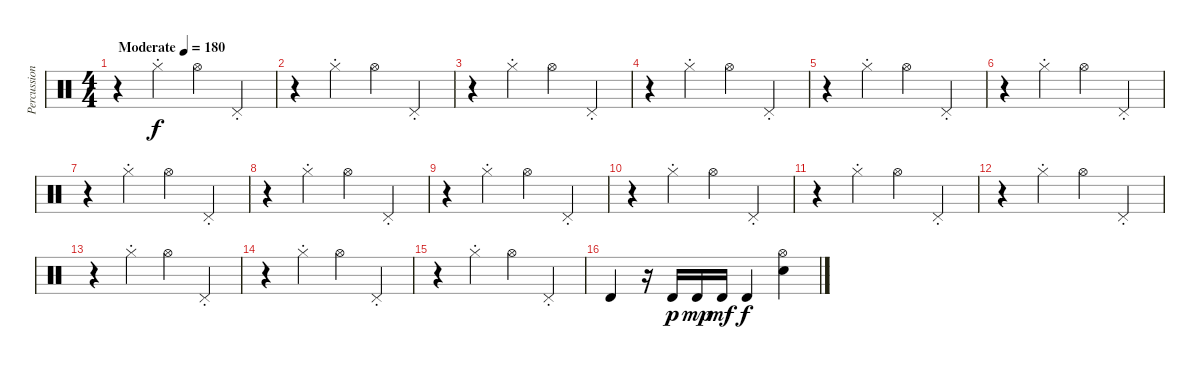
\track ("Percussion" "Percussion") {instrument percussion}
\staff {score}
\articulation defaults
\ts (4 4)
\tempo (180 "Moderate")
\clef neutral
\ks c
r.4{dy f} "Hi-Hat (closed)"{st}.4 "Hi-Hat (open)".4 "Pedal Hi-Hat (hit)"{st}.4 |
r.4 "Hi-Hat (closed)"{st}.4 "Hi-Hat (open)".4 "Pedal Hi-Hat (hit)"{st}.4 |
r.4 "Hi-Hat (closed)"{st}.4 "Hi-Hat (open)".4 "Pedal Hi-Hat (hit)"{st}.4 |
r.4 "Hi-Hat (closed)"{st}.4 "Hi-Hat (open)".4 "Pedal Hi-Hat (hit)"{st}.4 |
r.4 "Hi-Hat (closed)"{st}.4 "Hi-Hat (open)".4 "Pedal Hi-Hat (hit)"{st}.4 |
r.4 "Hi-Hat (closed)"{st}.4 "Hi-Hat (open)".4 "Pedal Hi-Hat (hit)"{st}.4 |
r.4 "Hi-Hat (closed)"{st}.4 "Hi-Hat (open)".4 "Pedal Hi-Hat (hit)"{st}.4 |
r.4 "Hi-Hat (closed)"{st}.4 "Hi-Hat (open)".4 "Pedal Hi-Hat (hit)"{st}.4 |
r.4 "Hi-Hat (closed)"{st}.4 "Hi-Hat (open)".4 "Pedal Hi-Hat (hit)"{st}.4 |
r.4 "Hi-Hat (closed)"{st}.4 "Hi-Hat (open)".4 "Pedal Hi-Hat (hit)"{st}.4 |
r.4 "Hi-Hat (closed)"{st}.4 "Hi-Hat (open)".4 "Pedal Hi-Hat (hit)"{st}.4 |
r.4 "Hi-Hat (closed)"{st}.4 "Hi-Hat (open)".4 "Pedal Hi-Hat (hit)"{st}.4 |
r.4 "Hi-Hat (closed)"{st}.4 "Hi-Hat (open)".4 "Pedal Hi-Hat (hit)"{st}.4 |
r.4 "Hi-Hat (closed)"{st}.4 "Hi-Hat (open)".4 "Pedal Hi-Hat (hit)"{st}.4 |
r.4 "Hi-Hat (closed)"{st}.4 "Hi-Hat (open)".4 "Pedal Hi-Hat (hit)"{st}.4 |
"Timbale high (hit)".4 r.16 "Timbale high (hit)".16{dy p} "Timbale high (hit)".16{dy mp} "Timbale high (hit)".16{dy mf} "Timbale high (hit)".4{dy f} ("Electric Snare (hit)" "Hi-Hat (open)").4
